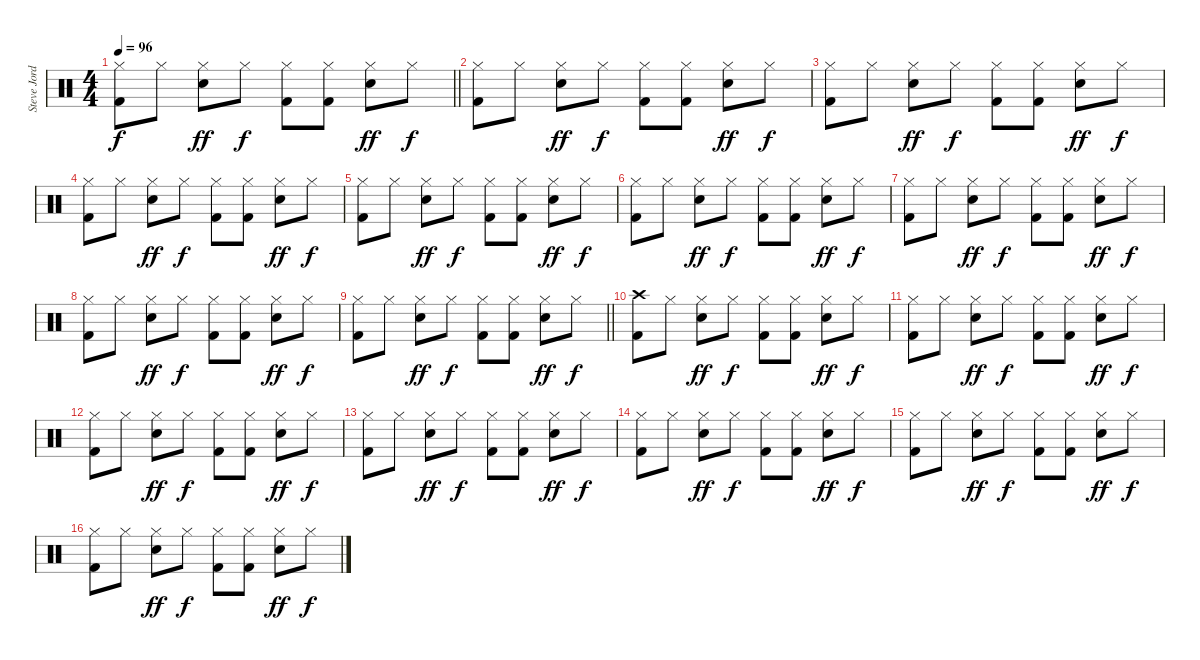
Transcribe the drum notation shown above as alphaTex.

\track ("Steve Jordan" "Steve Jord") {instrument percussion}
\staff {score}
\articulation defaults
\ts (4 4)
\tempo 96
\clef neutral
\barLineRight lightlight
\ks c
("Hi-Hat (closed)" "Kick (hit) 2").8{dy f} "Hi-Hat (closed)".8 ("Hi-Hat (closed)" "Snare (hit) 2").8{dy ff} "Hi-Hat (closed)".8{dy f} ("Hi-Hat (closed)" "Kick (hit) 2").8 ("Hi-Hat (closed)" "Kick (hit) 2").8 ("Hi-Hat (closed)" "Snare (hit) 2").8{dy ff} "Hi-Hat (closed)".8{dy f} |
("Hi-Hat (closed)" "Kick (hit) 2").8 "Hi-Hat (closed)".8 ("Hi-Hat (closed)" "Snare (hit) 2").8{dy ff} "Hi-Hat (closed)".8{dy f} ("Hi-Hat (closed)" "Kick (hit) 2").8 ("Hi-Hat (closed)" "Kick (hit) 2").8 ("Hi-Hat (closed)" "Snare (hit) 2").8{dy ff} "Hi-Hat (closed)".8{dy f} |
("Hi-Hat (closed)" "Kick (hit) 2").8 "Hi-Hat (closed)".8 ("Hi-Hat (closed)" "Snare (hit) 2").8{dy ff} "Hi-Hat (closed)".8{dy f} ("Hi-Hat (closed)" "Kick (hit) 2").8 ("Hi-Hat (closed)" "Kick (hit) 2").8 ("Hi-Hat (closed)" "Snare (hit) 2").8{dy ff} "Hi-Hat (closed)".8{dy f} |
("Hi-Hat (closed)" "Kick (hit) 2").8 "Hi-Hat (closed)".8 ("Hi-Hat (closed)" "Snare (hit) 2").8{dy ff} "Hi-Hat (closed)".8{dy f} ("Hi-Hat (closed)" "Kick (hit) 2").8 ("Hi-Hat (closed)" "Kick (hit) 2").8 ("Hi-Hat (closed)" "Snare (hit) 2").8{dy ff} "Hi-Hat (closed)".8{dy f} |
("Hi-Hat (closed)" "Kick (hit) 2").8 "Hi-Hat (closed)".8 ("Hi-Hat (closed)" "Snare (hit) 2").8{dy ff} "Hi-Hat (closed)".8{dy f} ("Hi-Hat (closed)" "Kick (hit) 2").8 ("Hi-Hat (closed)" "Kick (hit) 2").8 ("Hi-Hat (closed)" "Snare (hit) 2").8{dy ff} "Hi-Hat (closed)".8{dy f} |
("Hi-Hat (closed)" "Kick (hit) 2").8 "Hi-Hat (closed)".8 ("Hi-Hat (closed)" "Snare (hit) 2").8{dy ff} "Hi-Hat (closed)".8{dy f} ("Hi-Hat (closed)" "Kick (hit) 2").8 ("Hi-Hat (closed)" "Kick (hit) 2").8 ("Hi-Hat (closed)" "Snare (hit) 2").8{dy ff} "Hi-Hat (closed)".8{dy f} |
("Hi-Hat (closed)" "Kick (hit) 2").8 "Hi-Hat (closed)".8 ("Hi-Hat (closed)" "Snare (hit) 2").8{dy ff} "Hi-Hat (closed)".8{dy f} ("Hi-Hat (closed)" "Kick (hit) 2").8 ("Hi-Hat (closed)" "Kick (hit) 2").8 ("Hi-Hat (closed)" "Snare (hit) 2").8{dy ff} "Hi-Hat (closed)".8{dy f} |
("Hi-Hat (closed)" "Kick (hit) 2").8 "Hi-Hat (closed)".8 ("Hi-Hat (closed)" "Snare (hit) 2").8{dy ff} "Hi-Hat (closed)".8{dy f} ("Hi-Hat (closed)" "Kick (hit) 2").8 ("Hi-Hat (closed)" "Kick (hit) 2").8 ("Hi-Hat (closed)" "Snare (hit) 2").8{dy ff} "Hi-Hat (closed)".8{dy f} |
\barLineRight lightlight
("Hi-Hat (closed)" "Kick (hit) 2").8 "Hi-Hat (closed)".8 ("Hi-Hat (closed)" "Snare (hit) 2").8{dy ff} "Hi-Hat (closed)".8{dy f} ("Hi-Hat (closed)" "Kick (hit) 2").8 ("Hi-Hat (closed)" "Kick (hit) 2").8 ("Hi-Hat (closed)" "Snare (hit) 2").8{dy ff} "Hi-Hat (closed)".8{dy f} |
("Crash high (hit)" "Kick (hit) 2").8 "Hi-Hat (closed)".8 ("Hi-Hat (closed)" "Snare (hit) 2").8{dy ff} "Hi-Hat (closed)".8{dy f} ("Hi-Hat (closed)" "Kick (hit) 2").8 ("Hi-Hat (closed)" "Kick (hit) 2").8 ("Hi-Hat (closed)" "Snare (hit) 2").8{dy ff} "Hi-Hat (closed)".8{dy f} |
("Hi-Hat (closed)" "Kick (hit) 2").8 "Hi-Hat (closed)".8 ("Hi-Hat (closed)" "Snare (hit) 2").8{dy ff} "Hi-Hat (closed)".8{dy f} ("Hi-Hat (closed)" "Kick (hit) 2").8 ("Hi-Hat (closed)" "Kick (hit) 2").8 ("Hi-Hat (closed)" "Snare (hit) 2").8{dy ff} "Hi-Hat (closed)".8{dy f} |
("Hi-Hat (closed)" "Kick (hit) 2").8 "Hi-Hat (closed)".8 ("Hi-Hat (closed)" "Snare (hit) 2").8{dy ff} "Hi-Hat (closed)".8{dy f} ("Hi-Hat (closed)" "Kick (hit) 2").8 ("Hi-Hat (closed)" "Kick (hit) 2").8 ("Hi-Hat (closed)" "Snare (hit) 2").8{dy ff} "Hi-Hat (closed)".8{dy f} |
("Hi-Hat (closed)" "Kick (hit) 2").8 "Hi-Hat (closed)".8 ("Hi-Hat (closed)" "Snare (hit) 2").8{dy ff} "Hi-Hat (closed)".8{dy f} ("Hi-Hat (closed)" "Kick (hit) 2").8 ("Hi-Hat (closed)" "Kick (hit) 2").8 ("Hi-Hat (closed)" "Snare (hit) 2").8{dy ff} "Hi-Hat (closed)".8{dy f} |
("Hi-Hat (closed)" "Kick (hit) 2").8 "Hi-Hat (closed)".8 ("Hi-Hat (closed)" "Snare (hit) 2").8{dy ff} "Hi-Hat (closed)".8{dy f} ("Hi-Hat (closed)" "Kick (hit) 2").8 ("Hi-Hat (closed)" "Kick (hit) 2").8 ("Hi-Hat (closed)" "Snare (hit) 2").8{dy ff} "Hi-Hat (closed)".8{dy f} |
("Hi-Hat (closed)" "Kick (hit) 2").8 "Hi-Hat (closed)".8 ("Hi-Hat (closed)" "Snare (hit) 2").8{dy ff} "Hi-Hat (closed)".8{dy f} ("Hi-Hat (closed)" "Kick (hit) 2").8 ("Hi-Hat (closed)" "Kick (hit) 2").8 ("Hi-Hat (closed)" "Snare (hit) 2").8{dy ff} "Hi-Hat (closed)".8{dy f} |
("Hi-Hat (closed)" "Kick (hit) 2").8 "Hi-Hat (closed)".8 ("Hi-Hat (closed)" "Snare (hit) 2").8{dy ff} "Hi-Hat (closed)".8{dy f} ("Hi-Hat (closed)" "Kick (hit) 2").8 ("Hi-Hat (closed)" "Kick (hit) 2").8 ("Hi-Hat (closed)" "Snare (hit) 2").8{dy ff} "Hi-Hat (closed)".8{dy f}
